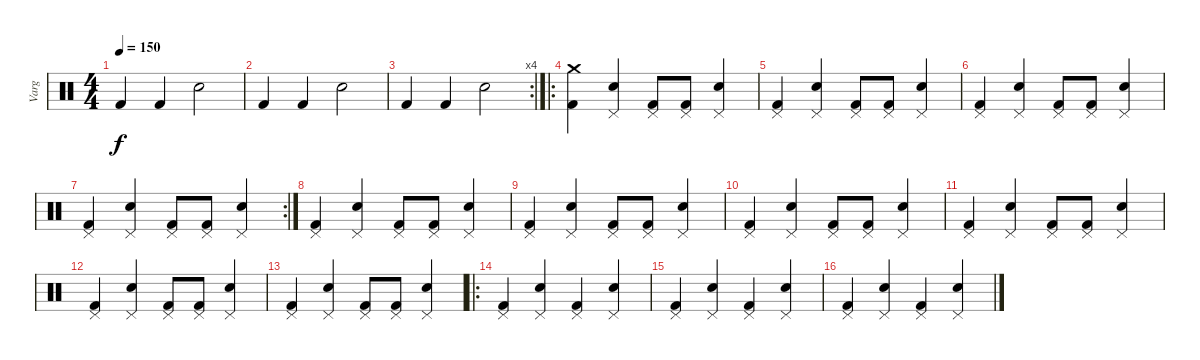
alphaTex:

\track ("Varg" "Varg") {instrument percussion}
\staff {score}
\articulation defaults
\ts (4 4)
\tempo 150
\clef neutral
\ks c "Kick (hit) 2".4{dy f} "Kick (hit) 2".4 "Snare (hit) 2".2
|
"Kick (hit) 2".4 "Kick (hit) 2".4 "Snare (hit) 2".2 |
\rc 4 "Kick (hit) 2".4 "Kick (hit) 2".4 "Snare (hit) 2".2
|
\ro
("Crash medium (hit)" "Kick (hit) 2").4 ("Snare (hit) 2" "Pedal Hi-Hat (hit)").4 ("Kick (hit) 2" "Pedal Hi-Hat (hit)").8 ("Kick (hit) 2" "Pedal Hi-Hat (hit)").8 ("Snare (hit) 2" "Pedal Hi-Hat (hit)").4 |
("Pedal Hi-Hat (hit)" "Kick (hit) 2").4 ("Snare (hit) 2" "Pedal Hi-Hat (hit)").4 ("Kick (hit) 2" "Pedal Hi-Hat (hit)").8 ("Kick (hit) 2" "Pedal Hi-Hat (hit)").8 ("Snare (hit) 2" "Pedal Hi-Hat (hit)").4 |
("Pedal Hi-Hat (hit)" "Kick (hit) 2").4 ("Snare (hit) 2" "Pedal Hi-Hat (hit)").4 ("Kick (hit) 2" "Pedal Hi-Hat (hit)").8 ("Kick (hit) 2" "Pedal Hi-Hat (hit)").8 ("Snare (hit) 2" "Pedal Hi-Hat (hit)").4 |
\rc 2
("Pedal Hi-Hat (hit)" "Kick (hit) 2").4 ("Snare (hit) 2" "Pedal Hi-Hat (hit)").4 ("Kick (hit) 2" "Pedal Hi-Hat (hit)").8 ("Kick (hit) 2" "Pedal Hi-Hat (hit)").8 ("Snare (hit) 2" "Pedal Hi-Hat (hit)").4 |
("Pedal Hi-Hat (hit)" "Kick (hit) 2").4 ("Snare (hit) 2" "Pedal Hi-Hat (hit)").4 ("Kick (hit) 2" "Pedal Hi-Hat (hit)").8 ("Kick (hit) 2" "Pedal Hi-Hat (hit)").8 ("Snare (hit) 2" "Pedal Hi-Hat (hit)").4 |
("Pedal Hi-Hat (hit)" "Kick (hit) 2").4 ("Snare (hit) 2" "Pedal Hi-Hat (hit)").4 ("Kick (hit) 2" "Pedal Hi-Hat (hit)").8 ("Kick (hit) 2" "Pedal Hi-Hat (hit)").8 ("Snare (hit) 2" "Pedal Hi-Hat (hit)").4 |
("Pedal Hi-Hat (hit)" "Kick (hit) 2").4 ("Snare (hit) 2" "Pedal Hi-Hat (hit)").4 ("Kick (hit) 2" "Pedal Hi-Hat (hit)").8 ("Kick (hit) 2" "Pedal Hi-Hat (hit)").8 ("Snare (hit) 2" "Pedal Hi-Hat (hit)").4 |
("Pedal Hi-Hat (hit)" "Kick (hit) 2").4 ("Snare (hit) 2" "Pedal Hi-Hat (hit)").4 ("Kick (hit) 2" "Pedal Hi-Hat (hit)").8 ("Kick (hit) 2" "Pedal Hi-Hat (hit)").8 ("Snare (hit) 2" "Pedal Hi-Hat (hit)").4 |
("Pedal Hi-Hat (hit)" "Kick (hit) 2").4 ("Snare (hit) 2" "Pedal Hi-Hat (hit)").4 ("Kick (hit) 2" "Pedal Hi-Hat (hit)").8 ("Kick (hit) 2" "Pedal Hi-Hat (hit)").8 ("Snare (hit) 2" "Pedal Hi-Hat (hit)").4 |
("Pedal Hi-Hat (hit)" "Kick (hit) 2").4 ("Snare (hit) 2" "Pedal Hi-Hat (hit)").4 ("Kick (hit) 2" "Pedal Hi-Hat (hit)").8 ("Kick (hit) 2" "Pedal Hi-Hat (hit)").8 ("Snare (hit) 2" "Pedal Hi-Hat (hit)").4 |
\ro
("Kick (hit) 2" "Pedal Hi-Hat (hit)").4 ("Snare (hit) 2" "Pedal Hi-Hat (hit)").4 ("Kick (hit) 2" "Pedal Hi-Hat (hit)").4 ("Snare (hit) 2" "Pedal Hi-Hat (hit)").4 |
("Kick (hit) 2" "Pedal Hi-Hat (hit)").4 ("Snare (hit) 2" "Pedal Hi-Hat (hit)").4 ("Kick (hit) 2" "Pedal Hi-Hat (hit)").4 ("Snare (hit) 2" "Pedal Hi-Hat (hit)").4 |
("Kick (hit) 2" "Pedal Hi-Hat (hit)").4 ("Snare (hit) 2" "Pedal Hi-Hat (hit)").4 ("Kick (hit) 2" "Pedal Hi-Hat (hit)").4 ("Snare (hit) 2" "Pedal Hi-Hat (hit)").4
